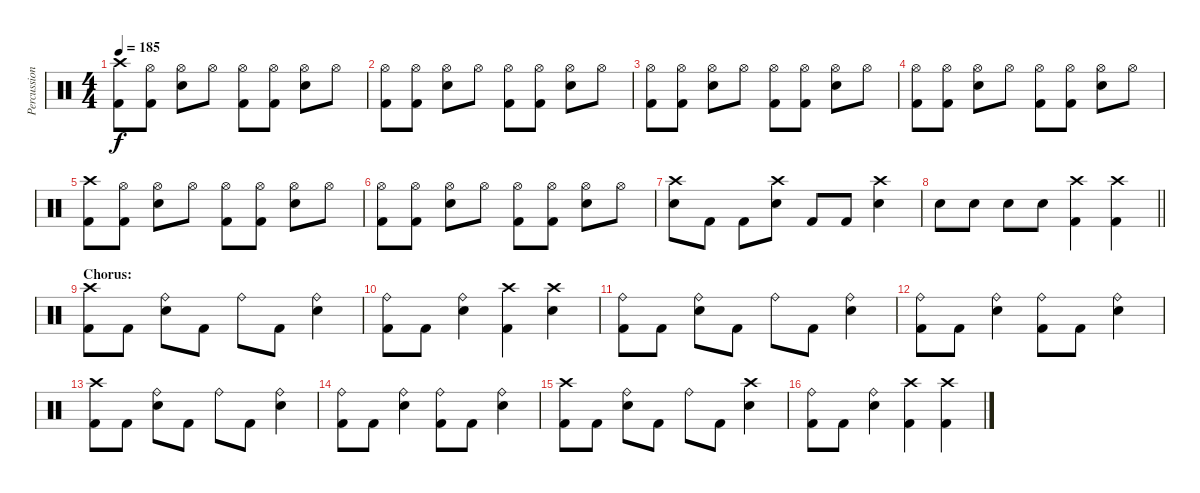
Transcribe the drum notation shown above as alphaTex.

\track ("Percussion" "Percussion") {instrument percussion}
\staff {score}
\articulation defaults
\ts (4 4)
\tempo 185
\clef neutral
\ks c
("Crash high (hit)" "Kick (hit) 2").8{dy f} ("Hi-Hat (open)" "Kick (hit) 2").8 ("Hi-Hat (open)" "Snare (hit) 2").8 "Hi-Hat (open)".8 ("Hi-Hat (open)" "Kick (hit) 2").8 ("Hi-Hat (open)" "Kick (hit) 2").8 ("Hi-Hat (open)" "Snare (hit) 2").8 "Hi-Hat (open)".8 |
("Hi-Hat (open)" "Kick (hit) 2").8 ("Hi-Hat (open)" "Kick (hit) 2").8 ("Hi-Hat (open)" "Snare (hit) 2").8 "Hi-Hat (open)".8 ("Hi-Hat (open)" "Kick (hit) 2").8 ("Hi-Hat (open)" "Kick (hit) 2").8 ("Hi-Hat (open)" "Snare (hit) 2").8 "Hi-Hat (open)".8 |
("Hi-Hat (open)" "Kick (hit) 2").8 ("Hi-Hat (open)" "Kick (hit) 2").8 ("Hi-Hat (open)" "Snare (hit) 2").8 "Hi-Hat (open)".8 ("Hi-Hat (open)" "Kick (hit) 2").8 ("Hi-Hat (open)" "Kick (hit) 2").8 ("Hi-Hat (open)" "Snare (hit) 2").8 "Hi-Hat (open)".8 |
("Hi-Hat (open)" "Kick (hit) 2").8 ("Hi-Hat (open)" "Kick (hit) 2").8 ("Hi-Hat (open)" "Snare (hit) 2").8 "Hi-Hat (open)".8 ("Hi-Hat (open)" "Kick (hit) 2").8 ("Hi-Hat (open)" "Kick (hit) 2").8 ("Hi-Hat (open)" "Snare (hit) 2").8 "Hi-Hat (open)".8 |
("Crash high (hit)" "Kick (hit) 2").8 ("Hi-Hat (open)" "Kick (hit) 2").8 ("Hi-Hat (open)" "Snare (hit) 2").8 "Hi-Hat (open)".8 ("Hi-Hat (open)" "Kick (hit) 2").8 ("Hi-Hat (open)" "Kick (hit) 2").8 ("Hi-Hat (open)" "Snare (hit) 2").8 "Hi-Hat (open)".8 |
("Hi-Hat (open)" "Kick (hit) 2").8 ("Hi-Hat (open)" "Kick (hit) 2").8 ("Hi-Hat (open)" "Snare (hit) 2").8 "Hi-Hat (open)".8 ("Hi-Hat (open)" "Kick (hit) 2").8 ("Hi-Hat (open)" "Kick (hit) 2").8 ("Hi-Hat (open)" "Snare (hit) 2").8 "Hi-Hat (open)".8 |
("Crash high (hit)" "Snare (hit) 2").8 "Kick (hit) 2".8 "Kick (hit) 2".8 ("Crash high (hit)" "Snare (hit) 2").8 "Kick (hit) 2".8 "Kick (hit) 2".8 ("Crash high (hit)" "Snare (hit) 2").4 |
\barLineRight lightlight "Snare (hit) 2".8 "Snare (hit) 2".8 "Snare (hit) 2".8 "Snare (hit) 2".8
("Crash high (hit)" "Kick (hit) 2").4 ("Crash high (hit)" "Kick (hit) 2").4 |
\section ("" "Chorus:")
("Crash high (hit)" "Kick (hit) 2").8 "Kick (hit) 2".8 ("Ride (bell)" "Snare (hit) 2").8 "Kick (hit) 2".8 "Ride (bell)".8 "Kick (hit) 2".8 ("Ride (bell)" "Snare (hit) 2").4 |
("Ride (bell)" "Kick (hit) 2").8 "Kick (hit) 2".8 ("Ride (bell)" "Snare (hit) 2").4 ("Crash high (hit)" "Kick (hit) 2").4 ("Crash high (hit)" "Snare (hit) 2").4 |
("Ride (bell)" "Kick (hit) 2").8 "Kick (hit) 2".8 ("Ride (bell)" "Snare (hit) 2").8 "Kick (hit) 2".8 "Ride (bell)".8 "Kick (hit) 2".8 ("Ride (bell)" "Snare (hit) 2").4 |
("Ride (bell)" "Kick (hit) 2").8 "Kick (hit) 2".8 ("Ride (bell)" "Snare (hit) 2").4 ("Ride (bell)" "Kick (hit) 2").8 "Kick (hit) 2".8 ("Ride (bell)" "Snare (hit) 2").4 |
("Crash high (hit)" "Kick (hit) 2").8 "Kick (hit) 2".8 ("Ride (bell)" "Snare (hit) 2").8 "Kick (hit) 2".8 "Ride (bell)".8 "Kick (hit) 2".8 ("Ride (bell)" "Snare (hit) 2").4 |
("Ride (bell)" "Kick (hit) 2").8 "Kick (hit) 2".8 ("Ride (bell)" "Snare (hit) 2").4 ("Ride (bell)" "Kick (hit) 2").8 "Kick (hit) 2".8 ("Ride (bell)" "Snare (hit) 2").4 |
("Crash high (hit)" "Kick (hit) 2").8 "Kick (hit) 2".8 ("Ride (bell)" "Snare (hit) 2").8 "Kick (hit) 2".8 "Ride (bell)".8 "Kick (hit) 2".8 ("Crash high (hit)" "Snare (hit) 2").4 |
("Ride (bell)" "Kick (hit) 2").8 "Kick (hit) 2".8 ("Ride (bell)" "Snare (hit) 2").4 ("Crash high (hit)" "Kick (hit) 2").4 ("Crash high (hit)" "Kick (hit) 2").4
